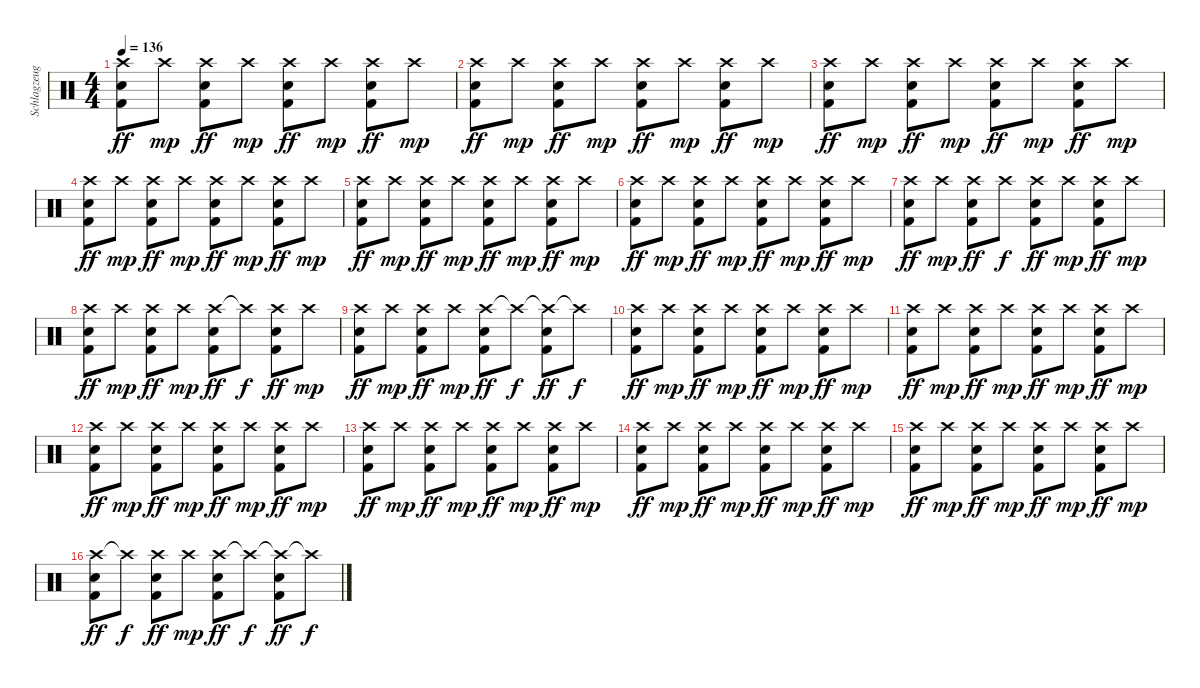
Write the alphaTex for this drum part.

\track ("Schlagzeug - der Hund Marie" "Schlagzeug") {instrument percussion}
\staff {score}
\articulation defaults
\ts (4 4)
\tempo 136
\clef neutral
\ks c
("Crash high (hit)" "Snare (hit) 2" "Kick (hit) 2").8{dy ff} "Crash high (hit)".8{dy mp} ("Crash high (hit)" "Snare (hit) 2" "Kick (hit) 2").8{dy ff} "Crash high (hit)".8{dy mp} ("Crash high (hit)" "Snare (hit) 2" "Kick (hit) 2").8{dy ff} "Crash high (hit)".8{dy mp} ("Crash high (hit)" "Snare (hit) 2" "Kick (hit) 2").8{dy ff} "Crash high (hit)".8{dy mp} |
("Crash high (hit)" "Snare (hit) 2" "Kick (hit) 2").8{dy ff} "Crash high (hit)".8{dy mp} ("Crash high (hit)" "Snare (hit) 2" "Kick (hit) 2").8{dy ff} "Crash high (hit)".8{dy mp} ("Crash high (hit)" "Snare (hit) 2" "Kick (hit) 2").8{dy ff} "Crash high (hit)".8{dy mp} ("Crash high (hit)" "Snare (hit) 2" "Kick (hit) 2").8{dy ff} "Crash high (hit)".8{dy mp} |
("Crash high (hit)" "Snare (hit) 2" "Kick (hit) 2").8{dy ff} "Crash high (hit)".8{dy mp} ("Crash high (hit)" "Snare (hit) 2" "Kick (hit) 2").8{dy ff} "Crash high (hit)".8{dy mp} ("Crash high (hit)" "Snare (hit) 2" "Kick (hit) 2").8{dy ff} "Crash high (hit)".8{dy mp} ("Crash high (hit)" "Snare (hit) 2" "Kick (hit) 2").8{dy ff} "Crash high (hit)".8{dy mp} |
("Crash high (hit)" "Snare (hit) 2" "Kick (hit) 2").8{dy ff} "Crash high (hit)".8{dy mp} ("Crash high (hit)" "Snare (hit) 2" "Kick (hit) 2").8{dy ff} "Crash high (hit)".8{dy mp} ("Crash high (hit)" "Snare (hit) 2" "Kick (hit) 2").8{dy ff} "Crash high (hit)".8{dy mp} ("Crash high (hit)" "Snare (hit) 2" "Kick (hit) 2").8{dy ff} "Crash high (hit)".8{dy mp} |
("Crash high (hit)" "Snare (hit) 2" "Kick (hit) 2").8{dy ff} "Crash high (hit)".8{dy mp} ("Crash high (hit)" "Snare (hit) 2" "Kick (hit) 2").8{dy ff} "Crash high (hit)".8{dy mp} ("Crash high (hit)" "Snare (hit) 2" "Kick (hit) 2").8{dy ff} "Crash high (hit)".8{dy mp} ("Crash high (hit)" "Snare (hit) 2" "Kick (hit) 2").8{dy ff} "Crash high (hit)".8{dy mp} |
("Crash high (hit)" "Snare (hit) 2" "Kick (hit) 2").8{dy ff} "Crash high (hit)".8{dy mp} ("Crash high (hit)" "Snare (hit) 2" "Kick (hit) 2").8{dy ff} "Crash high (hit)".8{dy mp} ("Crash high (hit)" "Snare (hit) 2" "Kick (hit) 2").8{dy ff} "Crash high (hit)".8{dy mp} ("Crash high (hit)" "Snare (hit) 2" "Kick (hit) 2").8{dy ff} "Crash high (hit)".8{dy mp} |
("Crash high (hit)" "Snare (hit) 2" "Kick (hit) 2").8{dy ff} "Crash high (hit)".8{dy mp} ("Crash high (hit)" "Snare (hit) 2" "Kick (hit) 2").8{dy ff} "Crash high (hit)".8{dy f} ("Crash high (hit)" "Snare (hit) 2" "Kick (hit) 2").8{dy ff} "Crash high (hit)".8{dy mp} ("Crash high (hit)" "Snare (hit) 2" "Kick (hit) 2").8{dy ff} "Crash high (hit)".8{dy mp} |
("Crash high (hit)" "Snare (hit) 2" "Kick (hit) 2").8{dy ff} "Crash high (hit)".8{dy mp} ("Crash high (hit)" "Snare (hit) 2" "Kick (hit) 2").8{dy ff} "Crash high (hit)".8{dy mp} ("Crash high (hit)" "Snare (hit) 2" "Kick (hit) 2").8{dy ff} "Crash high (hit)"{t}.8{dy f} ("Crash high (hit)" "Snare (hit) 2" "Kick (hit) 2").8{dy ff} "Crash high (hit)".8{dy mp} |
("Crash high (hit)" "Snare (hit) 2" "Kick (hit) 2").8{dy ff} "Crash high (hit)".8{dy mp} ("Crash high (hit)" "Snare (hit) 2" "Kick (hit) 2").8{dy ff} "Crash high (hit)".8{dy mp} ("Crash high (hit)" "Snare (hit) 2" "Kick (hit) 2").8{dy ff} "Crash high (hit)"{t}.8{dy f} ("Crash high (hit)"{t} "Snare (hit) 2" "Kick (hit) 2").8{dy ff} "Crash high (hit)"{t}.8{dy f} |
("Crash high (hit)" "Snare (hit) 2" "Kick (hit) 2").8{dy ff} "Crash high (hit)".8{dy mp} ("Crash high (hit)" "Snare (hit) 2" "Kick (hit) 2").8{dy ff} "Crash high (hit)".8{dy mp} ("Crash high (hit)" "Snare (hit) 2" "Kick (hit) 2").8{dy ff} "Crash high (hit)".8{dy mp} ("Crash high (hit)" "Snare (hit) 2" "Kick (hit) 2").8{dy ff} "Crash high (hit)".8{dy mp} |
("Crash high (hit)" "Snare (hit) 2" "Kick (hit) 2").8{dy ff} "Crash high (hit)".8{dy mp} ("Crash high (hit)" "Snare (hit) 2" "Kick (hit) 2").8{dy ff} "Crash high (hit)".8{dy mp} ("Crash high (hit)" "Snare (hit) 2" "Kick (hit) 2").8{dy ff} "Crash high (hit)".8{dy mp} ("Crash high (hit)" "Snare (hit) 2" "Kick (hit) 2").8{dy ff} "Crash high (hit)".8{dy mp} |
("Crash high (hit)" "Snare (hit) 2" "Kick (hit) 2").8{dy ff} "Crash high (hit)".8{dy mp} ("Crash high (hit)" "Snare (hit) 2" "Kick (hit) 2").8{dy ff} "Crash high (hit)".8{dy mp} ("Crash high (hit)" "Snare (hit) 2" "Kick (hit) 2").8{dy ff} "Crash high (hit)".8{dy mp} ("Crash high (hit)" "Snare (hit) 2" "Kick (hit) 2").8{dy ff} "Crash high (hit)".8{dy mp} |
("Crash high (hit)" "Snare (hit) 2" "Kick (hit) 2").8{dy ff} "Crash high (hit)".8{dy mp} ("Crash high (hit)" "Snare (hit) 2" "Kick (hit) 2").8{dy ff} "Crash high (hit)".8{dy mp} ("Crash high (hit)" "Snare (hit) 2" "Kick (hit) 2").8{dy ff} "Crash high (hit)".8{dy mp} ("Crash high (hit)" "Snare (hit) 2" "Kick (hit) 2").8{dy ff} "Crash high (hit)".8{dy mp} |
("Crash high (hit)" "Snare (hit) 2" "Kick (hit) 2").8{dy ff} "Crash high (hit)".8{dy mp} ("Crash high (hit)" "Snare (hit) 2" "Kick (hit) 2").8{dy ff} "Crash high (hit)".8{dy mp} ("Crash high (hit)" "Snare (hit) 2" "Kick (hit) 2").8{dy ff} "Crash high (hit)".8{dy mp} ("Crash high (hit)" "Snare (hit) 2" "Kick (hit) 2").8{dy ff} "Crash high (hit)".8{dy mp} |
("Crash high (hit)" "Snare (hit) 2" "Kick (hit) 2").8{dy ff} "Crash high (hit)".8{dy mp} ("Crash high (hit)" "Snare (hit) 2" "Kick (hit) 2").8{dy ff} "Crash high (hit)".8{dy mp} ("Crash high (hit)" "Snare (hit) 2" "Kick (hit) 2").8{dy ff} "Crash high (hit)".8{dy mp} ("Crash high (hit)" "Snare (hit) 2" "Kick (hit) 2").8{dy ff} "Crash high (hit)".8{dy mp} |
("Crash high (hit)" "Snare (hit) 2" "Kick (hit) 2").8{dy ff} "Crash high (hit)"{t}.8{dy f} ("Crash high (hit)" "Snare (hit) 2" "Kick (hit) 2").8{dy ff} "Crash high (hit)".8{dy mp} ("Crash high (hit)" "Snare (hit) 2" "Kick (hit) 2").8{dy ff} "Crash high (hit)"{t}.8{dy f} ("Crash high (hit)"{t} "Snare (hit) 2" "Kick (hit) 2").8{dy ff} "Crash high (hit)"{t}.8{dy f}
